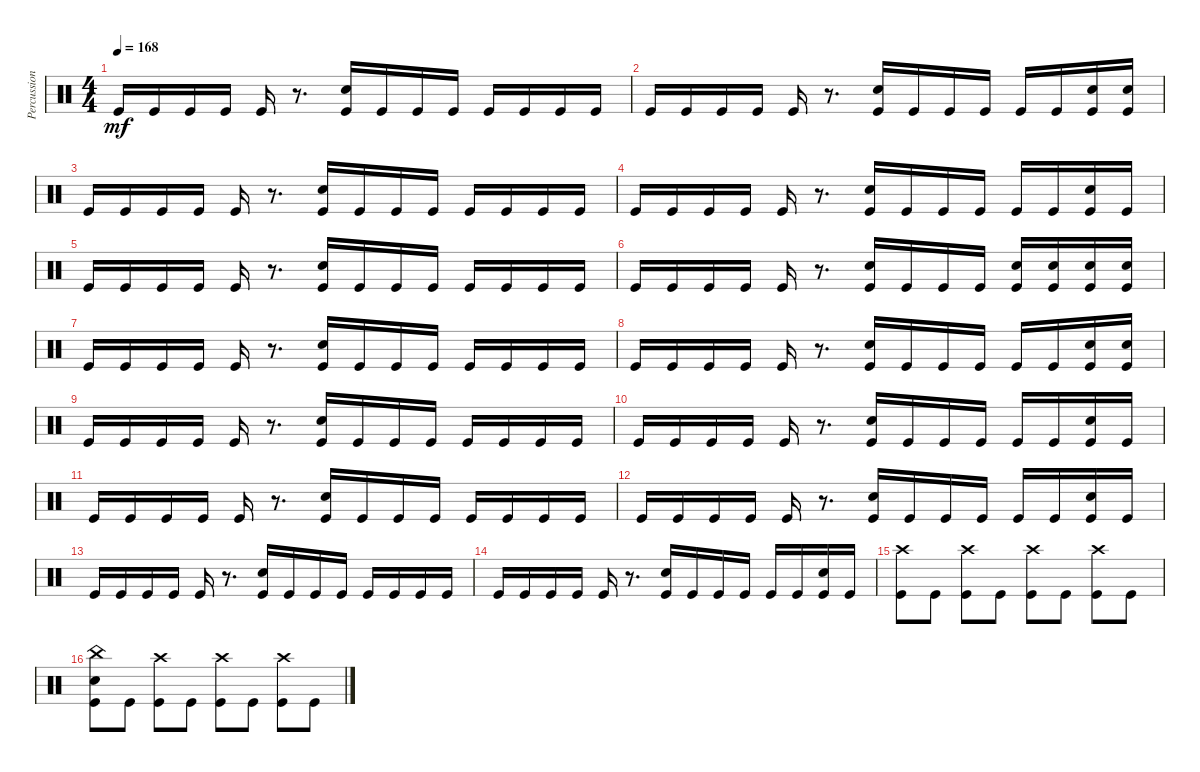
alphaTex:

\track ("Percussion" "Percussion") {instrument percussion}
\staff {score}
\articulation defaults
\ts (4 4)
\tempo 168
\clef neutral
\ks c "Kick (hit)".16{dy mf} "Kick (hit)".16 "Kick (hit)".16 "Kick (hit)".16 "Kick (hit)".16
r.8{d} ("Electric Snare (hit)" "Kick (hit)").16 "Kick (hit)".16 "Kick (hit)".16 "Kick (hit)".16 "Kick (hit)".16 "Kick (hit)".16 "Kick (hit)".16 "Kick (hit)".16 |
"Kick (hit)".16 "Kick (hit)".16 "Kick (hit)".16 "Kick (hit)".16 "Kick (hit)".16 r.8{d} ("Electric Snare (hit)" "Kick (hit)").16 "Kick (hit)".16 "Kick (hit)".16 "Kick (hit)".16 "Kick (hit)".16 "Kick (hit)".16 ("Electric Snare (hit)" "Kick (hit)").16 ("Electric Snare (hit)" "Kick (hit)").16 |
"Kick (hit)".16 "Kick (hit)".16 "Kick (hit)".16 "Kick (hit)".16 "Kick (hit)".16 r.8{d} ("Electric Snare (hit)" "Kick (hit)").16 "Kick (hit)".16 "Kick (hit)".16 "Kick (hit)".16 "Kick (hit)".16 "Kick (hit)".16 "Kick (hit)".16 "Kick (hit)".16 |
"Kick (hit)".16 "Kick (hit)".16 "Kick (hit)".16 "Kick (hit)".16 "Kick (hit)".16 r.8{d} ("Electric Snare (hit)" "Kick (hit)").16 "Kick (hit)".16 "Kick (hit)".16 "Kick (hit)".16 "Kick (hit)".16 "Kick (hit)".16 ("Electric Snare (hit)" "Kick (hit)").16 "Kick (hit)".16 |
"Kick (hit)".16 "Kick (hit)".16 "Kick (hit)".16 "Kick (hit)".16 "Kick (hit)".16 r.8{d} ("Electric Snare (hit)" "Kick (hit)").16 "Kick (hit)".16 "Kick (hit)".16 "Kick (hit)".16 "Kick (hit)".16 "Kick (hit)".16 "Kick (hit)".16 "Kick (hit)".16 |
"Kick (hit)".16 "Kick (hit)".16 "Kick (hit)".16 "Kick (hit)".16 "Kick (hit)".16 r.8{d} ("Electric Snare (hit)" "Kick (hit)").16 "Kick (hit)".16 "Kick (hit)".16 "Kick (hit)".16 ("Electric Snare (hit)" "Kick (hit)").16 ("Electric Snare (hit)" "Kick (hit)").16 ("Electric Snare (hit)" "Kick (hit)").16 ("Electric Snare (hit)" "Kick (hit)").16 |
"Kick (hit)".16 "Kick (hit)".16 "Kick (hit)".16 "Kick (hit)".16 "Kick (hit)".16 r.8{d} ("Electric Snare (hit)" "Kick (hit)").16 "Kick (hit)".16 "Kick (hit)".16 "Kick (hit)".16 "Kick (hit)".16 "Kick (hit)".16 "Kick (hit)".16 "Kick (hit)".16 |
"Kick (hit)".16 "Kick (hit)".16 "Kick (hit)".16 "Kick (hit)".16 "Kick (hit)".16 r.8{d} ("Electric Snare (hit)" "Kick (hit)").16 "Kick (hit)".16 "Kick (hit)".16 "Kick (hit)".16 "Kick (hit)".16 "Kick (hit)".16 ("Electric Snare (hit)" "Kick (hit)").16 ("Electric Snare (hit)" "Kick (hit)").16 |
"Kick (hit)".16 "Kick (hit)".16 "Kick (hit)".16 "Kick (hit)".16 "Kick (hit)".16 r.8{d} ("Electric Snare (hit)" "Kick (hit)").16 "Kick (hit)".16 "Kick (hit)".16 "Kick (hit)".16 "Kick (hit)".16 "Kick (hit)".16 "Kick (hit)".16 "Kick (hit)".16 |
"Kick (hit)".16 "Kick (hit)".16 "Kick (hit)".16 "Kick (hit)".16 "Kick (hit)".16 r.8{d} ("Electric Snare (hit)" "Kick (hit)").16 "Kick (hit)".16 "Kick (hit)".16 "Kick (hit)".16 "Kick (hit)".16 "Kick (hit)".16 ("Electric Snare (hit)" "Kick (hit)").16 "Kick (hit)".16 |
"Kick (hit)".16 "Kick (hit)".16 "Kick (hit)".16 "Kick (hit)".16 "Kick (hit)".16 r.8{d} ("Electric Snare (hit)" "Kick (hit)").16 "Kick (hit)".16 "Kick (hit)".16 "Kick (hit)".16 "Kick (hit)".16 "Kick (hit)".16 "Kick (hit)".16 "Kick (hit)".16 |
"Kick (hit)".16 "Kick (hit)".16 "Kick (hit)".16 "Kick (hit)".16 "Kick (hit)".16 r.8{d} ("Electric Snare (hit)" "Kick (hit)").16 "Kick (hit)".16 "Kick (hit)".16 "Kick (hit)".16 "Kick (hit)".16 "Kick (hit)".16 ("Electric Snare (hit)" "Kick (hit)").16 "Kick (hit)".16 |
"Kick (hit)".16 "Kick (hit)".16 "Kick (hit)".16 "Kick (hit)".16 "Kick (hit)".16 r.8{d} ("Electric Snare (hit)" "Kick (hit)").16 "Kick (hit)".16 "Kick (hit)".16 "Kick (hit)".16 "Kick (hit)".16 "Kick (hit)".16 "Kick (hit)".16 "Kick (hit)".16 |
"Kick (hit)".16 "Kick (hit)".16 "Kick (hit)".16 "Kick (hit)".16 "Kick (hit)".16 r.8{d} ("Electric Snare (hit)" "Kick (hit)").16 "Kick (hit)".16 "Kick (hit)".16 "Kick (hit)".16 "Kick (hit)".16 "Kick (hit)".16 ("Electric Snare (hit)" "Kick (hit)").16 "Kick (hit)".16 |
("Crash high (hit)" "Kick (hit)").8 "Kick (hit)".8 ("Crash high (hit)" "Kick (hit)").8 "Kick (hit)".8 ("Crash high (hit)" "Kick (hit)").8 "Kick (hit)".8 ("Crash high (hit)" "Kick (hit)").8 "Kick (hit)".8 |
("China (hit)" "Electric Snare (hit)" "Kick (hit)").8 "Kick (hit)".8 ("Crash high (hit)" "Kick (hit)").8 "Kick (hit)".8 ("Crash high (hit)" "Kick (hit)").8 "Kick (hit)".8 ("Crash high (hit)" "Kick (hit)").8 "Kick (hit)".8
